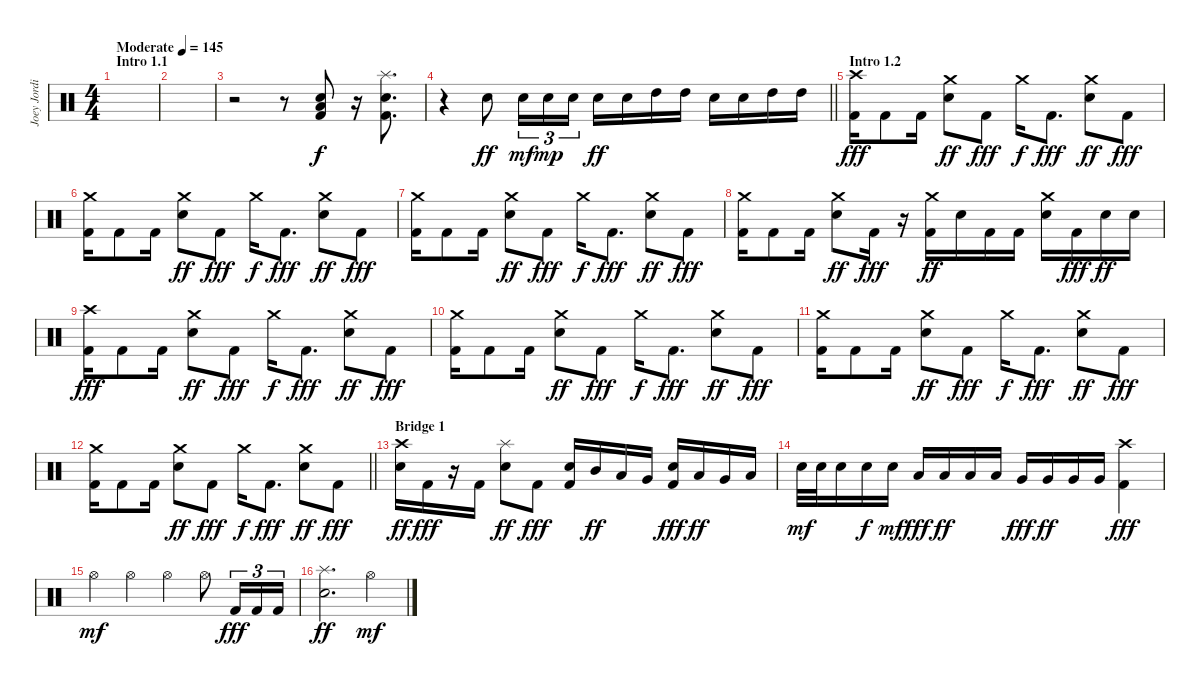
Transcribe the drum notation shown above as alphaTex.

\track ("Joey Jordison" "Joey Jordi") {instrument percussion}
\staff {score}
\articulation defaults
\ts (4 4)
\section ("" "Intro 1.1")
\tempo (145 "Moderate")
\clef neutral
\ks c
|
|
r.2 r.8 ("Electric Snare (hit)" "Low Floor Tom (hit)" "Kick (hit) 2").8 r.16 ("Splash (hit)" "Electric Snare (hit)" "Kick (hit) 2").8{d} |
\barLineRight lightlight
r.4 "Electric Snare (hit)".8{dy ff} "Electric Snare (hit)".16{tu (3 2) dy mf} "Electric Snare (hit)".16{tu (3 2) dy mp} "Electric Snare (hit)".16{tu (3 2)} "Electric Snare (hit)".16{dy ff} "Electric Snare (hit)".16 "High Tom (hit)".16 "High Tom (hit)".16 "Electric Snare (hit)".16 "Electric Snare (hit)".16 "High Tom (hit)".16 "High Tom (hit)".16 |
\section ("" "Intro 1.2")
("Crash high (hit)" "Kick (hit) 2").16{dy fff} "Kick (hit) 2".8 "Kick (hit) 2".16 ("Crash medium (hit)" "Electric Snare (hit)").8{dy ff} "Kick (hit) 2".8{dy fff} "Crash medium (hit)".16{dy f} "Kick (hit) 2".8{d dy fff} ("Crash medium (hit)" "Electric Snare (hit)").8{dy ff} "Kick (hit) 2".8{dy fff} |
("Crash medium (hit)" "Kick (hit) 2").16 "Kick (hit) 2".8 "Kick (hit) 2".16 ("Crash medium (hit)" "Electric Snare (hit)").8{dy ff} "Kick (hit) 2".8{dy fff} "Crash medium (hit)".16{dy f} "Kick (hit) 2".8{d dy fff} ("Crash medium (hit)" "Electric Snare (hit)").8{dy ff} "Kick (hit) 2".8{dy fff} |
("Crash medium (hit)" "Kick (hit) 2").16 "Kick (hit) 2".8 "Kick (hit) 2".16 ("Crash medium (hit)" "Electric Snare (hit)").8{dy ff} "Kick (hit) 2".8{dy fff} "Crash medium (hit)".16{dy f} "Kick (hit) 2".8{d dy fff} ("Crash medium (hit)" "Electric Snare (hit)").8{dy ff} "Kick (hit) 2".8{dy fff} |
("Crash medium (hit)" "Kick (hit) 2").16 "Kick (hit) 2".8 "Kick (hit) 2".16 ("Crash medium (hit)" "Electric Snare (hit)").8{dy ff} "Kick (hit) 2".16{dy fff} r.16 ("Crash medium (hit)" "Kick (hit) 2").16{dy ff} "Electric Snare (hit)".16 "Kick (hit) 2".16 "Kick (hit) 2".16 ("Crash medium (hit)" "Electric Snare (hit)").16 "Kick (hit) 2".16{dy fff} "Electric Snare (hit)".16{dy ff} "Electric Snare (hit)".16 |
("Crash high (hit)" "Kick (hit) 2").16{dy fff} "Kick (hit) 2".8 "Kick (hit) 2".16 ("Crash medium (hit)" "Electric Snare (hit)").8{dy ff} "Kick (hit) 2".8{dy fff} "Crash medium (hit)".16{dy f} "Kick (hit) 2".8{d dy fff} ("Crash medium (hit)" "Electric Snare (hit)").8{dy ff} "Kick (hit) 2".8{dy fff} |
("Crash medium (hit)" "Kick (hit) 2").16 "Kick (hit) 2".8 "Kick (hit) 2".16 ("Crash medium (hit)" "Electric Snare (hit)").8{dy ff} "Kick (hit) 2".8{dy fff} "Crash medium (hit)".16{dy f} "Kick (hit) 2".8{d dy fff} ("Crash medium (hit)" "Electric Snare (hit)").8{dy ff} "Kick (hit) 2".8{dy fff} |
("Crash medium (hit)" "Kick (hit) 2").16 "Kick (hit) 2".8 "Kick (hit) 2".16 ("Crash medium (hit)" "Electric Snare (hit)").8{dy ff} "Kick (hit) 2".8{dy fff} "Crash medium (hit)".16{dy f} "Kick (hit) 2".8{d dy fff} ("Crash medium (hit)" "Electric Snare (hit)").8{dy ff} "Kick (hit) 2".8{dy fff} |
\barLineRight lightlight
("Crash medium (hit)" "Kick (hit) 2").16 "Kick (hit) 2".8 "Kick (hit) 2".16 ("Crash medium (hit)" "Electric Snare (hit)").8{dy ff} "Kick (hit) 2".8{dy fff} "Crash medium (hit)".16{dy f} "Kick (hit) 2".8{d dy fff} ("Crash medium (hit)" "Electric Snare (hit)").8{dy ff} "Kick (hit) 2".8{dy fff} |
\section ("" "Bridge 1")
("Crash high (hit)" "Electric Snare (hit)").16{dy ff} "Kick (hit) 2".16{dy fff} r.16 "Kick (hit) 2".16 ("Splash (hit)" "Electric Snare (hit)").8{dy ff} "Kick (hit) 2".8{dy fff} ("Electric Snare (hit)" "Kick (hit) 2").16 "Mid Tom (hit)".16{dy ff} "Low Tom (hit)".16 "Very Low Tom (hit)".16 ("Electric Snare (hit)" "Kick (hit) 2").16{dy fff} "Low Tom (hit)".16{dy ff} "Very Low Tom (hit)".16 "Low Floor Tom (hit)".16 |
"Electric Snare (hit)".32{dy mf} "Electric Snare (hit)".32 "Electric Snare (hit)".16 "Electric Snare (hit)".16{dy f} "Electric Snare (hit)".16{dy mf} "Low Tom (hit)".16{dy fff} "Low Tom (hit)".16{dy ff} "Low Tom (hit)".16 "Low Tom (hit)".16 "Very Low Tom (hit)".16{dy fff} "Very Low Tom (hit)".16{dy ff} "Very Low Tom (hit)".16 "Very Low Tom (hit)".16 ("Crash high (hit)" "Kick (hit) 2").4{dy fff} |
"Hi-Hat (open)".4{dy mf} "Hi-Hat (open)".4 "Hi-Hat (open)".4 "Hi-Hat (open)".8 "Kick (hit) 2".16{tu (3 2) dy fff} "Kick (hit) 2".16{tu (3 2)} "Kick (hit) 2".16{tu (3 2)} |
("Splash (hit)" "Electric Snare (hit)").2{d dy ff} "Hi-Hat (open)".4{dy mf}
